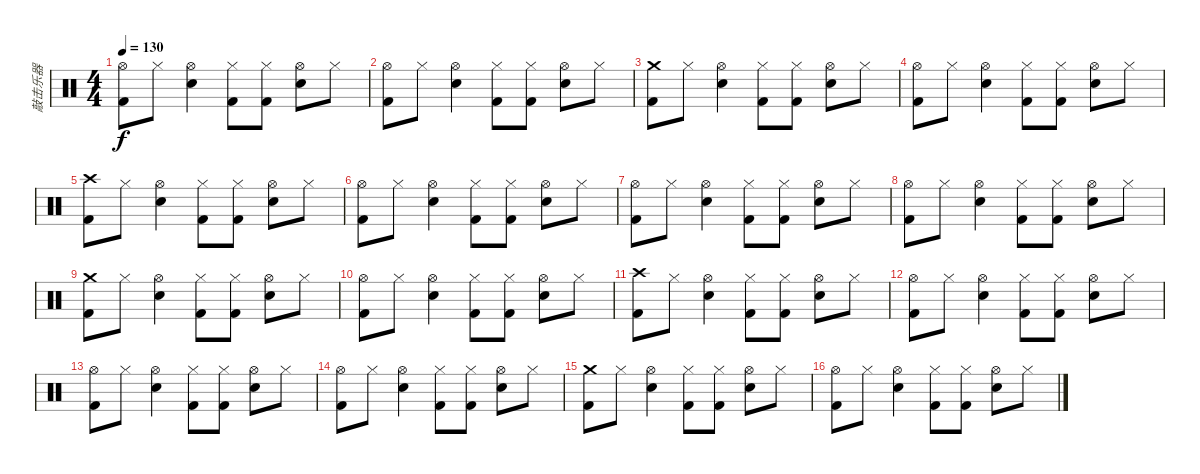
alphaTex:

\track ("敲击乐器" "敲击乐器") {instrument percussion}
\staff {score}
\articulation defaults
\ts (4 4)
\tempo 130
\clef neutral
\ks c
("Hi-Hat (open)" "Kick (hit) 2").8{dy f} "Hi-Hat (closed)".8 ("Electric Snare (hit)" "Hi-Hat (open)").4 ("Hi-Hat (closed)" "Kick (hit) 2").8 ("Hi-Hat (closed)" "Kick (hit) 2").8 ("Hi-Hat (open)" "Electric Snare (hit)").8 "Hi-Hat (closed)".8 |
("Hi-Hat (open)" "Kick (hit) 2").8 "Hi-Hat (closed)".8 ("Electric Snare (hit)" "Hi-Hat (open)").4 ("Hi-Hat (closed)" "Kick (hit) 2").8 ("Hi-Hat (closed)" "Kick (hit) 2").8 ("Hi-Hat (open)" "Electric Snare (hit)").8 "Hi-Hat (closed)".8 |
("Crash medium (hit)" "Kick (hit) 2").8 "Hi-Hat (closed)".8 ("Electric Snare (hit)" "Hi-Hat (open)").4 ("Hi-Hat (closed)" "Kick (hit) 2").8 ("Hi-Hat (closed)" "Kick (hit) 2").8 ("Hi-Hat (open)" "Electric Snare (hit)").8 "Hi-Hat (closed)".8 |
("Hi-Hat (open)" "Kick (hit) 2").8 "Hi-Hat (closed)".8 ("Electric Snare (hit)" "Hi-Hat (open)").4 ("Hi-Hat (closed)" "Kick (hit) 2").8 ("Hi-Hat (closed)" "Kick (hit) 2").8 ("Hi-Hat (open)" "Electric Snare (hit)").8 "Hi-Hat (closed)".8 |
("Crash high (hit)" "Kick (hit) 2").8 "Hi-Hat (closed)".8 ("Electric Snare (hit)" "Hi-Hat (open)").4 ("Hi-Hat (closed)" "Kick (hit) 2").8 ("Hi-Hat (closed)" "Kick (hit) 2").8 ("Hi-Hat (open)" "Electric Snare (hit)").8 "Hi-Hat (closed)".8 |
("Hi-Hat (open)" "Kick (hit) 2").8 "Hi-Hat (closed)".8 ("Electric Snare (hit)" "Hi-Hat (open)").4 ("Hi-Hat (closed)" "Kick (hit) 2").8 ("Hi-Hat (closed)" "Kick (hit) 2").8 ("Hi-Hat (open)" "Electric Snare (hit)").8 "Hi-Hat (closed)".8 |
("Hi-Hat (open)" "Kick (hit) 2").8 "Hi-Hat (closed)".8 ("Electric Snare (hit)" "Hi-Hat (open)").4 ("Hi-Hat (closed)" "Kick (hit) 2").8 ("Hi-Hat (closed)" "Kick (hit) 2").8 ("Hi-Hat (open)" "Electric Snare (hit)").8 "Hi-Hat (closed)".8 |
("Hi-Hat (open)" "Kick (hit) 2").8 "Hi-Hat (closed)".8 ("Electric Snare (hit)" "Hi-Hat (open)").4 ("Hi-Hat (closed)" "Kick (hit) 2").8 ("Hi-Hat (closed)" "Kick (hit) 2").8 ("Hi-Hat (open)" "Electric Snare (hit)").8 "Hi-Hat (closed)".8 |
("Crash medium (hit)" "Kick (hit) 2").8 "Hi-Hat (closed)".8 ("Electric Snare (hit)" "Hi-Hat (open)").4 ("Hi-Hat (closed)" "Kick (hit) 2").8 ("Hi-Hat (closed)" "Kick (hit) 2").8 ("Hi-Hat (open)" "Electric Snare (hit)").8 "Hi-Hat (closed)".8 |
("Hi-Hat (open)" "Kick (hit) 2").8 "Hi-Hat (closed)".8 ("Electric Snare (hit)" "Hi-Hat (open)").4 ("Hi-Hat (closed)" "Kick (hit) 2").8 ("Hi-Hat (closed)" "Kick (hit) 2").8 ("Hi-Hat (open)" "Electric Snare (hit)").8 "Hi-Hat (closed)".8 |
("Crash high (hit)" "Kick (hit) 2").8 "Hi-Hat (closed)".8 ("Electric Snare (hit)" "Hi-Hat (open)").4 ("Hi-Hat (closed)" "Kick (hit) 2").8 ("Hi-Hat (closed)" "Kick (hit) 2").8 ("Hi-Hat (open)" "Electric Snare (hit)").8 "Hi-Hat (closed)".8 |
("Hi-Hat (open)" "Kick (hit) 2").8 "Hi-Hat (closed)".8 ("Electric Snare (hit)" "Hi-Hat (open)").4 ("Hi-Hat (closed)" "Kick (hit) 2").8 ("Hi-Hat (closed)" "Kick (hit) 2").8 ("Hi-Hat (open)" "Electric Snare (hit)").8 "Hi-Hat (closed)".8 |
("Hi-Hat (open)" "Kick (hit) 2").8 "Hi-Hat (closed)".8 ("Electric Snare (hit)" "Hi-Hat (open)").4 ("Hi-Hat (closed)" "Kick (hit) 2").8 ("Hi-Hat (closed)" "Kick (hit) 2").8 ("Hi-Hat (open)" "Electric Snare (hit)").8 "Hi-Hat (closed)".8 |
("Hi-Hat (open)" "Kick (hit) 2").8 "Hi-Hat (closed)".8 ("Electric Snare (hit)" "Hi-Hat (open)").4 ("Hi-Hat (closed)" "Kick (hit) 2").8 ("Hi-Hat (closed)" "Kick (hit) 2").8 ("Hi-Hat (open)" "Electric Snare (hit)").8 "Hi-Hat (closed)".8 |
("Crash medium (hit)" "Kick (hit) 2").8 "Hi-Hat (closed)".8 ("Electric Snare (hit)" "Hi-Hat (open)").4 ("Hi-Hat (closed)" "Kick (hit) 2").8 ("Hi-Hat (closed)" "Kick (hit) 2").8 ("Hi-Hat (open)" "Electric Snare (hit)").8 "Hi-Hat (closed)".8 |
("Hi-Hat (open)" "Kick (hit) 2").8 "Hi-Hat (closed)".8 ("Electric Snare (hit)" "Hi-Hat (open)").4 ("Hi-Hat (closed)" "Kick (hit) 2").8 ("Hi-Hat (closed)" "Kick (hit) 2").8 ("Hi-Hat (open)" "Electric Snare (hit)").8 "Hi-Hat (closed)".8
